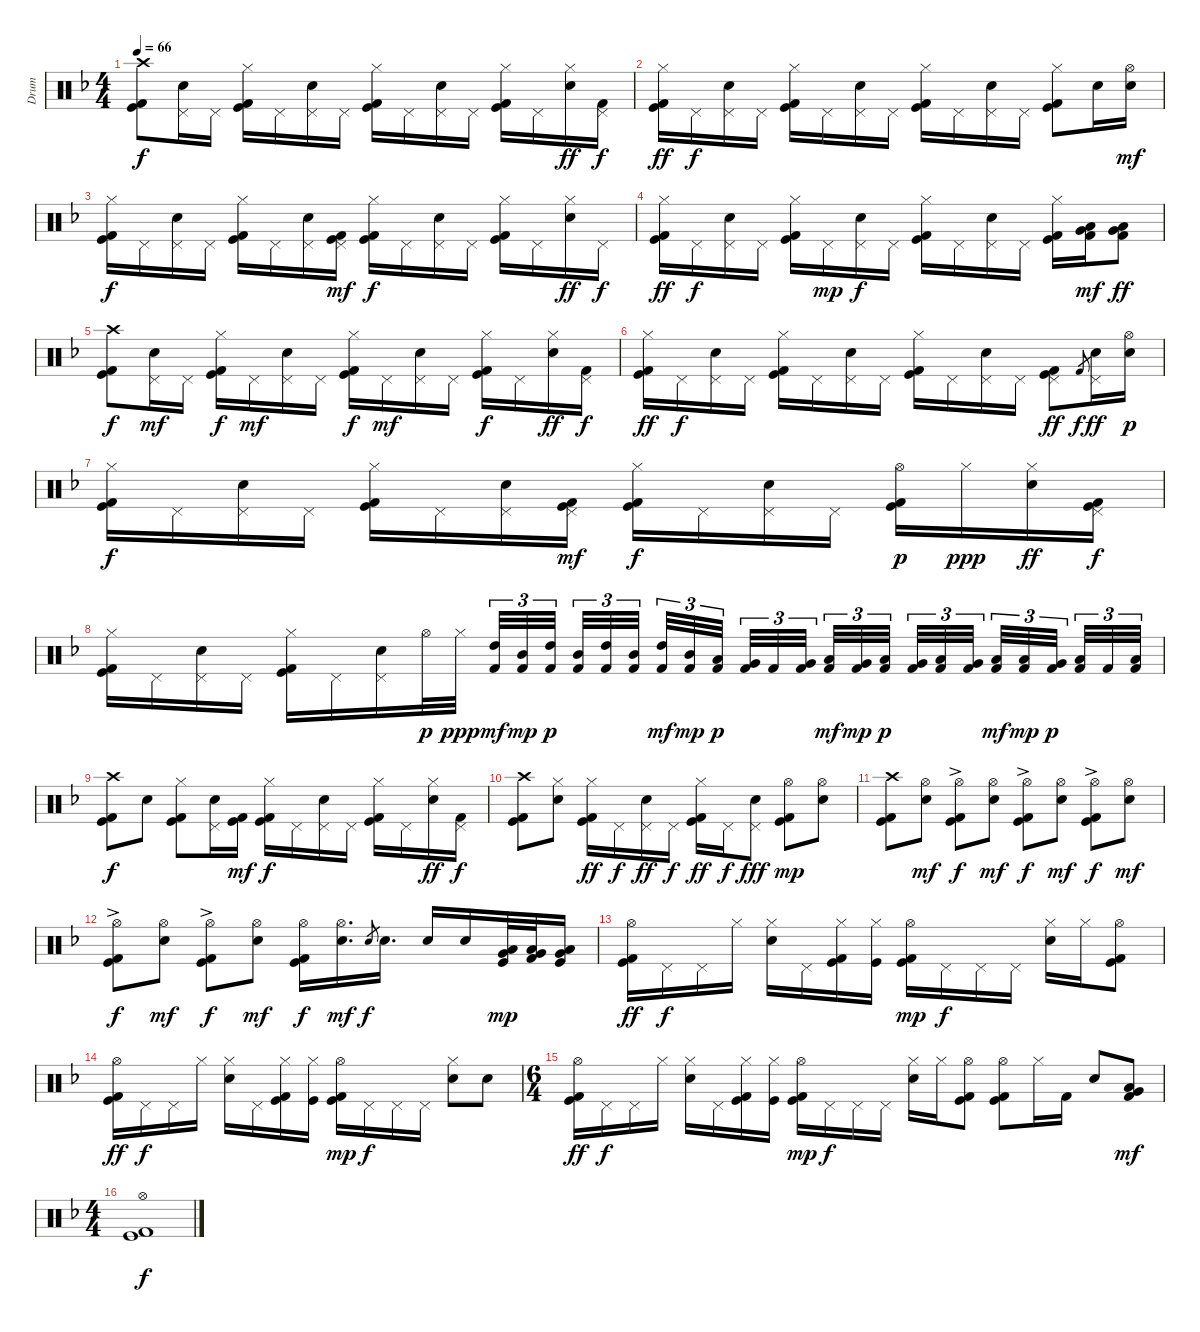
\track ("Drum" "Drum") {instrument percussion}
\staff {score}
\articulation defaults
\ts (4 4)
\tempo 66
\clef neutral
\ks dminor
("Kick (hit)" "Kick (hit) 2" "Crash high (hit)").8{dy f} ("Electric Snare (hit)" "Pedal Hi-Hat (hit)").16 "Pedal Hi-Hat (hit)".16 ("Kick (hit)" "Kick (hit) 2" "Hi-Hat (closed)").16 "Pedal Hi-Hat (hit)".16 ("Electric Snare (hit)" "Pedal Hi-Hat (hit)").16 "Pedal Hi-Hat (hit)".16 ("Kick (hit)" "Kick (hit) 2" "Hi-Hat (closed)").16 "Pedal Hi-Hat (hit)".16 ("Electric Snare (hit)" "Pedal Hi-Hat (hit)").16 "Pedal Hi-Hat (hit)".16 ("Kick (hit)" "Kick (hit) 2" "Hi-Hat (closed)").16 "Pedal Hi-Hat (hit)".16 ("Electric Snare (hit)" "Hi-Hat (closed)").16{dy ff} ("Kick (hit) 2" "Pedal Hi-Hat (hit)").16{dy f} |
("Kick (hit)" "Kick (hit) 2" "Hi-Hat (closed)").16{dy ff} "Pedal Hi-Hat (hit)".16{dy f} ("Electric Snare (hit)" "Pedal Hi-Hat (hit)").16 "Pedal Hi-Hat (hit)".16 ("Kick (hit)" "Kick (hit) 2" "Hi-Hat (closed)").16 "Pedal Hi-Hat (hit)".16 ("Electric Snare (hit)" "Pedal Hi-Hat (hit)").16 "Pedal Hi-Hat (hit)".16 ("Kick (hit)" "Kick (hit) 2" "Hi-Hat (closed)").16 "Pedal Hi-Hat (hit)".16 ("Electric Snare (hit)" "Pedal Hi-Hat (hit)").16 "Pedal Hi-Hat (hit)".16 ("Kick (hit)" "Kick (hit) 2" "Hi-Hat (closed)").8 "Electric Snare (hit)".16 ("Electric Snare (hit)" "Hi-Hat (open)").16{dy mf} |
("Kick (hit)" "Kick (hit) 2" "Hi-Hat (closed)").16{dy f} "Pedal Hi-Hat (hit)".16 ("Electric Snare (hit)" "Pedal Hi-Hat (hit)").16 "Pedal Hi-Hat (hit)".16 ("Kick (hit)" "Kick (hit) 2" "Hi-Hat (closed)").16 "Pedal Hi-Hat (hit)".16 ("Electric Snare (hit)" "Pedal Hi-Hat (hit)").16 ("Kick (hit)" "Kick (hit) 2" "Pedal Hi-Hat (hit)").16{dy mf} ("Kick (hit)" "Kick (hit) 2" "Hi-Hat (closed)").16{dy f} "Pedal Hi-Hat (hit)".16 ("Electric Snare (hit)" "Pedal Hi-Hat (hit)").16 "Pedal Hi-Hat (hit)".16 ("Kick (hit)" "Kick (hit) 2" "Hi-Hat (closed)").16 "Pedal Hi-Hat (hit)".16 ("Electric Snare (hit)" "Hi-Hat (closed)").16{dy ff} "Pedal Hi-Hat (hit)".16{dy f} |
("Kick (hit)" "Kick (hit) 2" "Hi-Hat (closed)").16{dy ff} "Pedal Hi-Hat (hit)".16{dy f} ("Electric Snare (hit)" "Pedal Hi-Hat (hit)").16 "Pedal Hi-Hat (hit)".16 ("Kick (hit)" "Kick (hit) 2" "Hi-Hat (closed)").16 "Pedal Hi-Hat (hit)".16{dy mp} ("Electric Snare (hit)" "Pedal Hi-Hat (hit)").16{dy f} "Pedal Hi-Hat (hit)".16 ("Kick (hit)" "Kick (hit) 2" "Hi-Hat (closed)").16 "Pedal Hi-Hat (hit)".16 ("Electric Snare (hit)" "Pedal Hi-Hat (hit)").16 "Pedal Hi-Hat (hit)".16 ("Kick (hit)" "Kick (hit) 2" "Hi-Hat (closed)").16 ("Low Floor Tom (hit)" "Kick (hit) 2" "Very Low Tom (hit)").16{dy mf} ("Low Floor Tom (hit)" "Kick (hit) 2" "Very Low Tom (hit)").8{dy ff} |
("Kick (hit)" "Kick (hit) 2" "Crash high (hit)").8{dy f} ("Electric Snare (hit)" "Pedal Hi-Hat (hit)").16{dy mf} "Pedal Hi-Hat (hit)".16 ("Kick (hit)" "Kick (hit) 2" "Hi-Hat (closed)").16{dy f} "Pedal Hi-Hat (hit)".16{dy mf} ("Electric Snare (hit)" "Pedal Hi-Hat (hit)").16 "Pedal Hi-Hat (hit)".16 ("Kick (hit)" "Kick (hit) 2" "Hi-Hat (closed)").16{dy f} "Pedal Hi-Hat (hit)".16{dy mf} ("Electric Snare (hit)" "Pedal Hi-Hat (hit)").16 "Pedal Hi-Hat (hit)".16 ("Kick (hit)" "Kick (hit) 2" "Hi-Hat (closed)").16{dy f} "Pedal Hi-Hat (hit)".16 ("Electric Snare (hit)" "Hi-Hat (closed)").16{dy ff} ("Kick (hit) 2" "Pedal Hi-Hat (hit)").16{dy f} |
("Kick (hit)" "Kick (hit) 2" "Hi-Hat (closed)").16{dy ff} "Pedal Hi-Hat (hit)".16{dy f} ("Electric Snare (hit)" "Pedal Hi-Hat (hit)").16 "Pedal Hi-Hat (hit)".16 ("Kick (hit)" "Kick (hit) 2" "Hi-Hat (closed)").16 "Pedal Hi-Hat (hit)".16 ("Electric Snare (hit)" "Pedal Hi-Hat (hit)").16 "Pedal Hi-Hat (hit)".16 ("Kick (hit)" "Kick (hit) 2" "Hi-Hat (closed)").16 "Pedal Hi-Hat (hit)".16 ("Electric Snare (hit)" "Pedal Hi-Hat (hit)").16 "Pedal Hi-Hat (hit)".16 ("Kick (hit)" "Kick (hit) 2" "Pedal Hi-Hat (hit)").8{dy ff} "Kick (hit) 2".8{gr dy f} ("Electric Snare (hit)" "Pedal Hi-Hat (hit)").16{dy ff} ("Electric Snare (hit)" "Hi-Hat (open)").16{dy p} |
("Kick (hit)" "Kick (hit) 2" "Hi-Hat (closed)").16{dy f} "Pedal Hi-Hat (hit)".16 ("Electric Snare (hit)" "Pedal Hi-Hat (hit)").16 "Pedal Hi-Hat (hit)".16 ("Kick (hit)" "Kick (hit) 2" "Hi-Hat (closed)").16 "Pedal Hi-Hat (hit)".16 ("Electric Snare (hit)" "Pedal Hi-Hat (hit)").16 ("Kick (hit)" "Kick (hit) 2" "Pedal Hi-Hat (hit)").16{dy mf} ("Kick (hit)" "Kick (hit) 2" "Hi-Hat (closed)").16{dy f} "Pedal Hi-Hat (hit)".16 ("Electric Snare (hit)" "Pedal Hi-Hat (hit)").16 "Pedal Hi-Hat (hit)".16 ("Kick (hit)" "Kick (hit) 2" "Hi-Hat (open)").16{dy p} "Hi-Hat (closed)".16{dy ppp} ("Electric Snare (hit)" "Hi-Hat (closed)").16{dy ff} ("Kick (hit)" "Kick (hit) 2" "Pedal Hi-Hat (hit)").16{dy f} |
("Kick (hit)" "Kick (hit) 2" "Hi-Hat (closed)").16 "Pedal Hi-Hat (hit)".16 ("Electric Snare (hit)" "Pedal Hi-Hat (hit)").16 "Pedal Hi-Hat (hit)".16 ("Kick (hit)" "Kick (hit) 2" "Hi-Hat (closed)").16 "Pedal Hi-Hat (hit)".16 ("Electric Snare (hit)" "Pedal Hi-Hat (hit)").16 "Hi-Hat (open)".32{dy p} "Hi-Hat (closed)".32{dy ppp} ("High Tom (hit)" "Kick (hit) 2").32{tu (3 2) dy mf volume 14 balance 11} ("Mid Tom (hit)" "Kick (hit) 2").32{tu (3 2) dy mp} ("High Tom (hit)" "Kick (hit) 2").32{tu (3 2) dy p beam splitsecondary} ("Mid Tom (hit)" "Kick (hit) 2").32{tu (3 2)} ("High Tom (hit)" "Kick (hit) 2").32{tu (3 2)} ("Mid Tom (hit)" "Kick (hit) 2").32{tu (3 2) beam splitsecondary} ("High Tom (hit)" "Kick (hit) 2").32{tu (3 2) dy mf} ("Mid Tom (hit)" "Kick (hit) 2").32{tu (3 2) dy mp} ("Low Tom (hit)" "Kick (hit) 2").32{tu (3 2) dy p balance 8 beam splitsecondary} ("Very Low Tom (hit)" "Kick (hit) 2").32{tu (3 2)} "Kick (hit) 2".32{tu (3 2)} ("Very Low Tom (hit)" "Kick (hit) 2").32{tu (3 2)} ("Low Tom (hit)" "Kick (hit) 2").32{tu (3 2) dy mf} ("Very Low Tom (hit)" "Kick (hit) 2").32{tu (3 2) dy mp} ("Low Tom (hit)" "Kick (hit) 2").32{tu (3 2) dy p beam splitsecondary} ("Very Low Tom (hit)" "Kick (hit) 2").32{tu (3 2)} ("Low Tom (hit)" "Kick (hit) 2").32{tu (3 2)} ("Very Low Tom (hit)" "Kick (hit) 2").32{tu (3 2) beam splitsecondary} ("Low Tom (hit)" "Kick (hit) 2").32{tu (3 2) dy mf} ("Low Floor Tom (hit)" "Kick (hit) 2").32{tu (3 2) dy mp balance 5} ("Very Low Tom (hit)" "Kick (hit) 2").32{tu (3 2) dy p beam splitsecondary} ("Low Floor Tom (hit)" "Kick (hit) 2").32{tu (3 2)} "Kick (hit) 2".32{tu (3 2)} ("Low Floor Tom (hit)" "Kick (hit) 2").32{tu (3 2)} |
("Kick (hit)" "Kick (hit) 2" "Crash high (hit)").8{dy f volume 12 balance 8} "Electric Snare (hit)".8 ("Kick (hit)" "Kick (hit) 2" "Hi-Hat (closed)").8 ("Electric Snare (hit)" "Pedal Hi-Hat (hit)").16 ("Kick (hit)" "Kick (hit) 2").16{dy mf} ("Kick (hit)" "Kick (hit) 2" "Hi-Hat (closed)").16{dy f} "Pedal Hi-Hat (hit)".16 ("Electric Snare (hit)" "Pedal Hi-Hat (hit)").16 "Pedal Hi-Hat (hit)".16 ("Kick (hit)" "Kick (hit) 2" "Hi-Hat (closed)").16 "Pedal Hi-Hat (hit)".16 ("Electric Snare (hit)" "Hi-Hat (closed)").16{dy ff} ("Kick (hit) 2" "Pedal Hi-Hat (hit)").16{dy f} |
("Kick (hit)" "Kick (hit) 2" "Crash high (hit)").8 ("Electric Snare (hit)" "Hi-Hat (closed)").8 ("Kick (hit)" "Kick (hit) 2" "Hi-Hat (closed)").16{dy ff} "Pedal Hi-Hat (hit)".16{dy f} ("Electric Snare (hit)" "Pedal Hi-Hat (hit)").16{dy ff} "Pedal Hi-Hat (hit)".16{dy f} ("Kick (hit)" "Kick (hit) 2" "Hi-Hat (closed)").16{dy ff} "Pedal Hi-Hat (hit)".16{dy f} ("Electric Snare (hit)" "Pedal Hi-Hat (hit)").8{dy fff} ("Kick (hit)" "Kick (hit) 2" "Hi-Hat (open)").8{dy mp} ("Electric Snare (hit)" "Hi-Hat (open)").8 |
("Kick (hit)" "Kick (hit) 2" "Crash high (hit)").8 ("Electric Snare (hit)" "Hi-Hat (open)").8{dy mf} ("Kick (hit)" "Kick (hit) 2" "Hi-Hat (open)"{ac}).8{dy f} ("Electric Snare (hit)" "Hi-Hat (open)").8{dy mf} ("Kick (hit)" "Kick (hit) 2" "Hi-Hat (open)"{ac}).8{dy f} ("Electric Snare (hit)" "Hi-Hat (open)").8{dy mf} ("Kick (hit)" "Kick (hit) 2" "Hi-Hat (open)"{ac}).8{dy f} ("Electric Snare (hit)" "Hi-Hat (open)").8{dy mf} |
("Kick (hit)" "Kick (hit) 2" "Hi-Hat (open)"{ac}).8{dy f} ("Electric Snare (hit)" "Hi-Hat (open)").8{dy mf} ("Kick (hit)" "Kick (hit) 2" "Hi-Hat (open)"{ac}).8{dy f} ("Electric Snare (hit)" "Hi-Hat (open)").8{dy mf} ("Kick (hit)" "Kick (hit) 2" "Hi-Hat (open)").16{dy f} ("Electric Snare (hit)" "Hi-Hat (open)").16{d dy mf} "Electric Snare (hit)".8{gr dy f} "Electric Snare (hit)".16{d} "Electric Snare (hit)".16 "Electric Snare (hit)".16 ("Very Low Tom (hit)" "Kick (hit)" "Low Floor Tom (hit)").32{dy mp} ("Very Low Tom (hit)" "Kick (hit) 2" "Low Floor Tom (hit)").32 ("Very Low Tom (hit)" "Kick (hit)" "Low Floor Tom (hit)").16 |
("Kick (hit)" "Kick (hit) 2" "Hi-Hat (open)").16{dy ff} "Pedal Hi-Hat (hit)".16{dy f} "Pedal Hi-Hat (hit)".16 "Hi-Hat (closed)".16 ("Electric Snare (hit)" "Hi-Hat (closed)").16 "Pedal Hi-Hat (hit)".16 ("Kick (hit)" "Kick (hit) 2" "Hi-Hat (closed)").16 ("Kick (hit)" "Hi-Hat (closed)").16 ("Kick (hit)" "Kick (hit) 2" "Hi-Hat (open)").16{dy mp} "Pedal Hi-Hat (hit)".16{dy f} "Pedal Hi-Hat (hit)".16 "Pedal Hi-Hat (hit)".16 ("Electric Snare (hit)" "Hi-Hat (closed)").16 "Hi-Hat (closed)".16 ("Kick (hit)" "Kick (hit) 2" "Hi-Hat (open)").8 |
("Kick (hit)" "Kick (hit) 2" "Hi-Hat (open)").16{dy ff} "Pedal Hi-Hat (hit)".16{dy f} "Pedal Hi-Hat (hit)".16 "Hi-Hat (closed)".16 ("Electric Snare (hit)" "Hi-Hat (closed)").16 "Pedal Hi-Hat (hit)".16 ("Kick (hit)" "Kick (hit) 2" "Hi-Hat (closed)").16 ("Kick (hit)" "Hi-Hat (closed)").16 ("Kick (hit)" "Kick (hit) 2" "Hi-Hat (open)").16{dy mp} "Pedal Hi-Hat (hit)".16{dy f} "Pedal Hi-Hat (hit)".16 "Pedal Hi-Hat (hit)".16 ("Electric Snare (hit)" "Hi-Hat (closed)").8 "Electric Snare (hit)".8 |
\ts (6 4)
("Kick (hit)" "Kick (hit) 2" "Hi-Hat (open)").16{dy ff} "Pedal Hi-Hat (hit)".16{dy f} "Pedal Hi-Hat (hit)".16 "Hi-Hat (closed)".16 ("Electric Snare (hit)" "Hi-Hat (closed)").16 "Pedal Hi-Hat (hit)".16 ("Kick (hit)" "Kick (hit) 2" "Hi-Hat (closed)").16 ("Kick (hit)" "Hi-Hat (closed)").16 ("Kick (hit)" "Kick (hit) 2" "Hi-Hat (open)").16{dy mp} "Pedal Hi-Hat (hit)".16{dy f} "Pedal Hi-Hat (hit)".16 "Pedal Hi-Hat (hit)".16 ("Electric Snare (hit)" "Hi-Hat (closed)").16 "Hi-Hat (closed)".16 ("Kick (hit)" "Kick (hit) 2" "Hi-Hat (open)").8 ("Kick (hit)" "Kick (hit) 2" "Hi-Hat (open)").8 "Hi-Hat (closed)".16 "Kick (hit) 2".16 "Electric Snare (hit)".8 ("Very Low Tom (hit)" "Kick (hit) 2" "Low Floor Tom (hit)").8{dy mf} |
\ts (4 4)
("Kick (hit)" "Kick (hit) 2" "Hi-Hat (open)").1{dy f}
